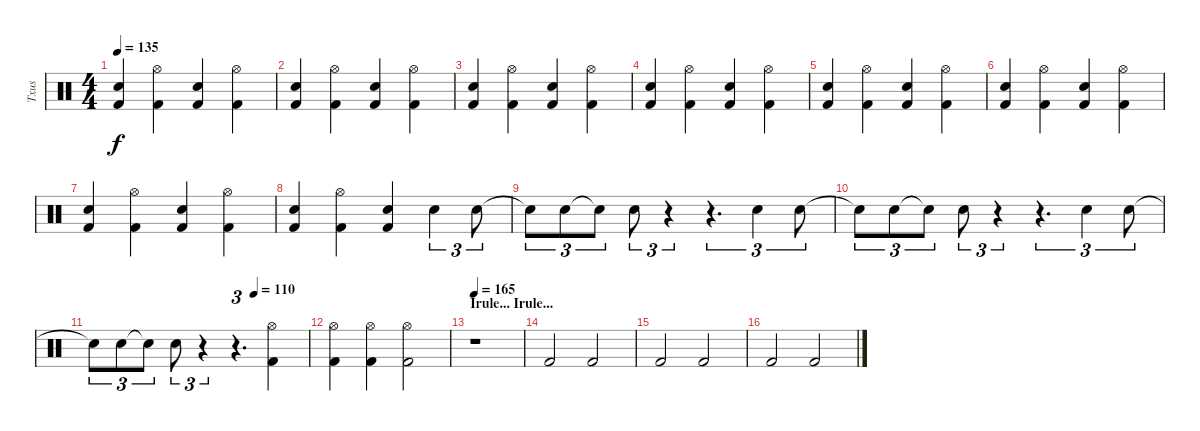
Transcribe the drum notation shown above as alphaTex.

\track ("Txus" "Txus") {instrument percussion}
\staff {score}
\articulation defaults
\ts (4 4)
\tempo 135
\clef neutral
\ks c
("Snare (hit) 2" "Kick (hit) 2").4{dy f} ("Hi-Hat (open)" "Kick (hit) 2").4 ("Snare (hit) 2" "Kick (hit) 2").4 ("Hi-Hat (open)" "Kick (hit) 2").4 |
("Snare (hit) 2" "Kick (hit) 2").4 ("Hi-Hat (open)" "Kick (hit) 2").4 ("Snare (hit) 2" "Kick (hit) 2").4 ("Hi-Hat (open)" "Kick (hit) 2").4 |
("Snare (hit) 2" "Kick (hit) 2").4 ("Hi-Hat (open)" "Kick (hit) 2").4 ("Snare (hit) 2" "Kick (hit) 2").4 ("Hi-Hat (open)" "Kick (hit) 2").4 |
("Snare (hit) 2" "Kick (hit) 2").4 ("Hi-Hat (open)" "Kick (hit) 2").4 ("Snare (hit) 2" "Kick (hit) 2").4 ("Hi-Hat (open)" "Kick (hit) 2").4 |
("Snare (hit) 2" "Kick (hit) 2").4 ("Hi-Hat (open)" "Kick (hit) 2").4 ("Snare (hit) 2" "Kick (hit) 2").4 ("Hi-Hat (open)" "Kick (hit) 2").4 |
("Snare (hit) 2" "Kick (hit) 2").4 ("Hi-Hat (open)" "Kick (hit) 2").4 ("Snare (hit) 2" "Kick (hit) 2").4 ("Hi-Hat (open)" "Kick (hit) 2").4 |
("Snare (hit) 2" "Kick (hit) 2").4 ("Hi-Hat (open)" "Kick (hit) 2").4 ("Snare (hit) 2" "Kick (hit) 2").4 ("Hi-Hat (open)" "Kick (hit) 2").4 |
("Snare (hit) 2" "Kick (hit) 2").4 ("Hi-Hat (open)" "Kick (hit) 2").4 ("Snare (hit) 2" "Kick (hit) 2").4 "Snare (hit) 2".4{tu (3 2)} "Snare (hit) 2".8{tu (3 2)} |
"Snare (hit) 2"{t}.8{tu (3 2)} "Snare (hit) 2".8{tu (3 2)} "Snare (hit)"{t}.8{tu (3 2)} "Snare (hit) 2".8{tu (3 2)} r.4{tu (3 2)} r.4{d tu (3 2)} "Snare (hit) 2".4{tu (3 2)} "Snare (hit) 2".8{tu (3 2)} |
"Snare (hit) 2"{t}.8{tu (3 2)} "Snare (hit) 2".8{tu (3 2)} "Snare (hit)"{t}.8{tu (3 2)} "Snare (hit) 2".8{tu (3 2)} r.4{tu (3 2)} r.4{d tu (3 2)} "Snare (hit) 2".4{tu (3 2)} "Snare (hit) 2".8{tu (3 2)} |
\tempo (110 0.75)
"Snare (hit) 2"{t}.8{tu (3 2)} "Snare (hit) 2".8{tu (3 2)} "Snare (hit)"{t}.8{tu (3 2)} "Snare (hit) 2".8{tu (3 2)} r.4{tu (3 2)} r.4{d tu (3 2)} ("Hi-Hat (open)" "Kick (hit) 2").4 |
("Hi-Hat (open)" "Kick (hit) 2").4 ("Hi-Hat (open)" "Kick (hit) 2").4 ("Hi-Hat (open)" "Kick (hit) 2").2 |
\section ("" "Irule... Irule...")
\tempo 165
r.1 |
"Kick (hit) 2".2 "Kick (hit) 2".2 |
"Kick (hit) 2".2 "Kick (hit) 2".2 |
"Kick (hit) 2".2 "Kick (hit) 2".2
